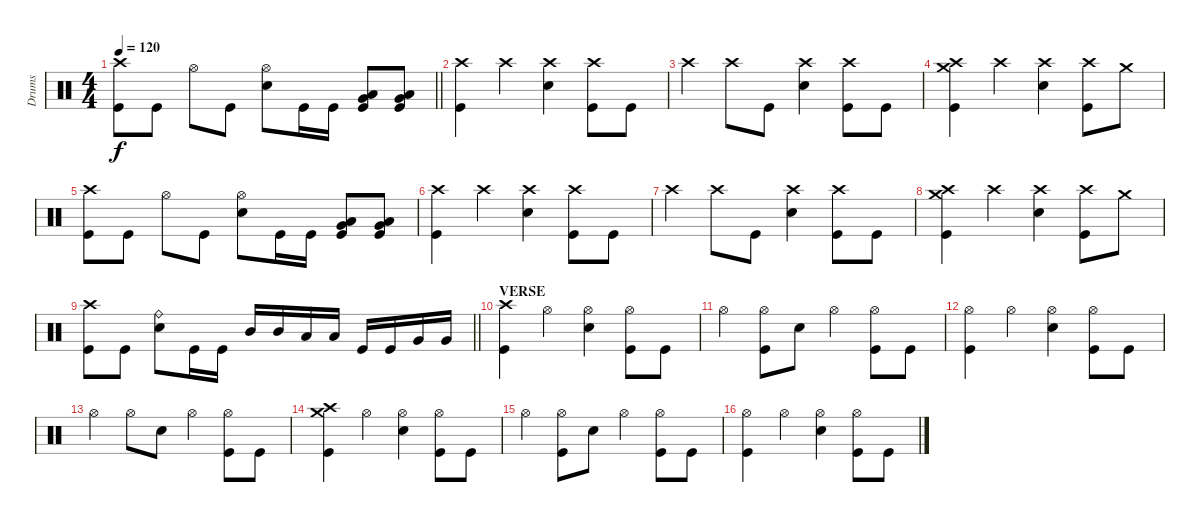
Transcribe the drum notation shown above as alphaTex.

\track ("Drums" "Drums") {instrument percussion}
\staff
\articulation defaults
\ts (4 4)
\tempo 120
\clef neutral
\barLineRight lightlight
\ks c
("Crash high (hit)" "Kick (hit)").8{dy f} "Kick (hit)".8 "Hi-Hat (open)".8 "Kick (hit)".8 ("Hi-Hat (open)" "Electric Snare (hit)").8 "Kick (hit)".16 "Kick (hit)".16 ("Very Low Tom (hit)" "Low Floor Tom (hit)" "Kick (hit)").8 ("Very Low Tom (hit)" "Low Floor Tom (hit)" "Kick (hit)").8 |
("Crash high (hit)" "Kick (hit)").4 "Crash high (hit)".4 ("Crash high (hit)" "Electric Snare (hit)").4 ("Crash high (hit)" "Kick (hit)").8 "Kick (hit)".8 |
"Crash high (hit)".4 "Crash high (hit)".8 "Kick (hit)".8 ("Crash high (hit)" "Electric Snare (hit)").4 ("Crash high (hit)" "Kick (hit)").8 "Kick (hit)".8 |
("Crash high (hit)" "Crash medium (hit)" "Kick (hit)").4 "Crash high (hit)".4 ("Crash high (hit)" "Electric Snare (hit)").4 ("Crash high (hit)" "Kick (hit)").8 "Crash medium (hit)".8 |
("Crash high (hit)" "Kick (hit)").8 "Kick (hit)".8 "Hi-Hat (open)".8 "Kick (hit)".8 ("Hi-Hat (open)" "Electric Snare (hit)").8 "Kick (hit)".16 "Kick (hit)".16 ("Very Low Tom (hit)" "Low Floor Tom (hit)" "Kick (hit)").8 ("Very Low Tom (hit)" "Low Floor Tom (hit)" "Kick (hit)").8 |
("Crash high (hit)" "Kick (hit)").4 "Crash high (hit)".4 ("Crash high (hit)" "Electric Snare (hit)").4 ("Crash high (hit)" "Kick (hit)").8 "Kick (hit)".8 |
"Crash high (hit)".4 "Crash high (hit)".8 "Kick (hit)".8 ("Crash high (hit)" "Electric Snare (hit)").4 ("Crash high (hit)" "Kick (hit)").8 "Kick (hit)".8 |
("Crash high (hit)" "Crash medium (hit)" "Kick (hit)").4 "Crash high (hit)".4 ("Crash high (hit)" "Electric Snare (hit)").4 ("Crash high (hit)" "Kick (hit)").8 "Crash medium (hit)".8 |
\barLineRight lightlight
("Crash high (hit)" "Kick (hit)").8 "Kick (hit)".8 ("Ride (bell)" "Electric Snare (hit)").8 "Kick (hit)".16 "Kick (hit)".16 "Mid Tom (hit)".16 "Mid Tom (hit)".16 "Low Tom (hit)".16 "Low Tom (hit)".16 "Kick (hit)".16 "Kick (hit)".16 "Very Low Tom (hit)".16 "Very Low Tom (hit)".16 |
\section ("" "VERSE")
("Crash high (hit)" "Kick (hit)").4 "Hi-Hat (open)".4 ("Hi-Hat (open)" "Electric Snare (hit)").4 ("Hi-Hat (open)" "Kick (hit)").8 "Kick (hit)".8 |
"Hi-Hat (open)".4 ("Hi-Hat (open)" "Kick (hit)").8 "Electric Snare (hit)".8 "Hi-Hat (open)".4 ("Hi-Hat (open)" "Kick (hit)").8 "Kick (hit)".8 |
("Hi-Hat (open)" "Kick (hit)").4 "Hi-Hat (open)".4 ("Hi-Hat (open)" "Electric Snare (hit)").4 ("Hi-Hat (open)" "Kick (hit)").8 "Kick (hit)".8 |
"Hi-Hat (open)".4 "Hi-Hat (open)".8 "Electric Snare (hit)".8 "Hi-Hat (open)".4 ("Hi-Hat (open)" "Kick (hit)").8 "Kick (hit)".8 |
("Crash high (hit)" "Crash medium (hit)" "Kick (hit)").4 "Hi-Hat (open)".4 ("Hi-Hat (open)" "Electric Snare (hit)").4 ("Hi-Hat (open)" "Kick (hit)").8 "Kick (hit)".8 |
"Hi-Hat (open)".4 ("Hi-Hat (open)" "Kick (hit)").8 "Electric Snare (hit)".8 "Hi-Hat (open)".4 ("Hi-Hat (open)" "Kick (hit)").8 "Kick (hit)".8 |
("Hi-Hat (open)" "Kick (hit)").4 "Hi-Hat (open)".4 ("Hi-Hat (open)" "Electric Snare (hit)").4 ("Hi-Hat (open)" "Kick (hit)").8 "Kick (hit)".8
